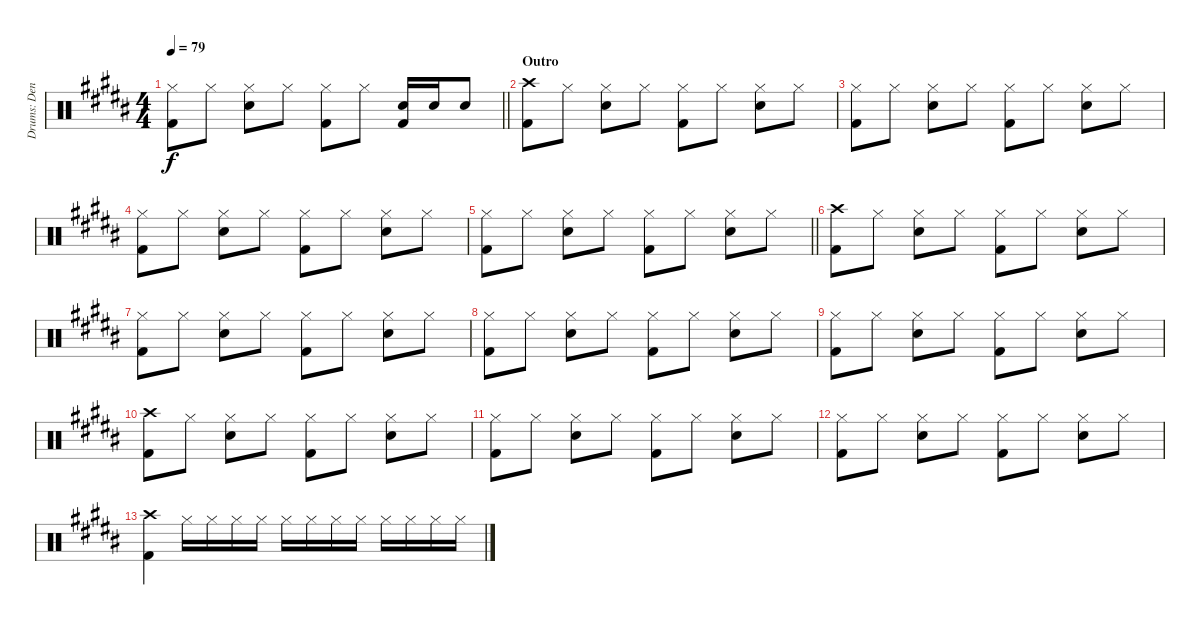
\track ("Drums: Denny" "Drums: Den") {instrument percussion}
\staff {score}
\articulation defaults
\ts (4 4)
\tempo 79
\clef neutral
\barLineRight lightlight
\ks b
("Hi-Hat (closed)" "Kick (hit) 2").8{dy f} "Hi-Hat (closed)".8 ("Hi-Hat (closed)" "Snare (hit) 2").8 "Hi-Hat (closed)".8 ("Hi-Hat (closed)" "Kick (hit) 2").8 "Hi-Hat (closed)".8 ("Electric Snare (hit)" "Kick (hit) 2").16 "Electric Snare (hit)".16 "Electric Snare (hit)".8 |
\section ("" "Outro")
("Crash high (hit)" "Kick (hit) 2").8 "Hi-Hat (closed)".8 ("Hi-Hat (closed)" "Snare (hit) 2").8 "Hi-Hat (closed)".8 ("Hi-Hat (closed)" "Kick (hit) 2").8 "Hi-Hat (closed)".8 ("Hi-Hat (closed)" "Snare (hit) 2").8 "Hi-Hat (closed)".8 |
("Hi-Hat (closed)" "Kick (hit) 2").8 "Hi-Hat (closed)".8 ("Hi-Hat (closed)" "Snare (hit) 2").8 "Hi-Hat (closed)".8 ("Hi-Hat (closed)" "Kick (hit) 2").8 "Hi-Hat (closed)".8 ("Hi-Hat (closed)" "Snare (hit) 2").8 "Hi-Hat (closed)".8 |
("Hi-Hat (closed)" "Kick (hit) 2").8 "Hi-Hat (closed)".8 ("Hi-Hat (closed)" "Snare (hit) 2").8 "Hi-Hat (closed)".8 ("Hi-Hat (closed)" "Kick (hit) 2").8 "Hi-Hat (closed)".8 ("Hi-Hat (closed)" "Snare (hit) 2").8 "Hi-Hat (closed)".8 |
\barLineRight lightlight
("Hi-Hat (closed)" "Kick (hit) 2").8 "Hi-Hat (closed)".8 ("Hi-Hat (closed)" "Snare (hit) 2").8 "Hi-Hat (closed)".8 ("Hi-Hat (closed)" "Kick (hit) 2").8 "Hi-Hat (closed)".8 ("Hi-Hat (closed)" "Snare (hit) 2").8 "Hi-Hat (closed)".8 |
("Crash high (hit)" "Kick (hit) 2").8 "Hi-Hat (closed)".8 ("Hi-Hat (closed)" "Snare (hit) 2").8 "Hi-Hat (closed)".8 ("Hi-Hat (closed)" "Kick (hit) 2").8 "Hi-Hat (closed)".8 ("Hi-Hat (closed)" "Snare (hit) 2").8 "Hi-Hat (closed)".8 |
("Hi-Hat (closed)" "Kick (hit) 2").8 "Hi-Hat (closed)".8 ("Hi-Hat (closed)" "Snare (hit) 2").8 "Hi-Hat (closed)".8 ("Hi-Hat (closed)" "Kick (hit) 2").8 "Hi-Hat (closed)".8 ("Hi-Hat (closed)" "Snare (hit) 2").8 "Hi-Hat (closed)".8 |
("Hi-Hat (closed)" "Kick (hit) 2").8 "Hi-Hat (closed)".8 ("Hi-Hat (closed)" "Snare (hit) 2").8 "Hi-Hat (closed)".8 ("Hi-Hat (closed)" "Kick (hit) 2").8 "Hi-Hat (closed)".8 ("Hi-Hat (closed)" "Snare (hit) 2").8 "Hi-Hat (closed)".8 |
("Hi-Hat (closed)" "Kick (hit) 2").8 "Hi-Hat (closed)".8 ("Hi-Hat (closed)" "Snare (hit) 2").8 "Hi-Hat (closed)".8 ("Hi-Hat (closed)" "Kick (hit) 2").8 "Hi-Hat (closed)".8 ("Hi-Hat (closed)" "Snare (hit) 2").8 "Hi-Hat (closed)".8 |
("Crash high (hit)" "Kick (hit) 2").8 "Hi-Hat (closed)".8 ("Hi-Hat (closed)" "Snare (hit) 2").8 "Hi-Hat (closed)".8 ("Hi-Hat (closed)" "Kick (hit) 2").8 "Hi-Hat (closed)".8 ("Hi-Hat (closed)" "Snare (hit) 2").8 "Hi-Hat (closed)".8 |
("Hi-Hat (closed)" "Kick (hit) 2").8 "Hi-Hat (closed)".8 ("Hi-Hat (closed)" "Snare (hit) 2").8 "Hi-Hat (closed)".8 ("Hi-Hat (closed)" "Kick (hit) 2").8 "Hi-Hat (closed)".8 ("Hi-Hat (closed)" "Snare (hit) 2").8 "Hi-Hat (closed)".8 |
("Hi-Hat (closed)" "Kick (hit) 2").8 "Hi-Hat (closed)".8 ("Hi-Hat (closed)" "Snare (hit) 2").8 "Hi-Hat (closed)".8 ("Hi-Hat (closed)" "Kick (hit) 2").8 "Hi-Hat (closed)".8 ("Hi-Hat (closed)" "Snare (hit) 2").8 "Hi-Hat (closed)".8 |
("Crash high (hit)" "Kick (hit) 2").4 "Hi-Hat (closed)".16 "Hi-Hat (closed)".16 "Hi-Hat (closed)".16 "Hi-Hat (closed)".16 "Hi-Hat (closed)".16 "Hi-Hat (closed)".16 "Hi-Hat (closed)".16 "Hi-Hat (closed)".16 "Hi-Hat (closed)".16 "Hi-Hat (closed)".16 "Hi-Hat (closed)".16 "Hi-Hat (closed)".16
